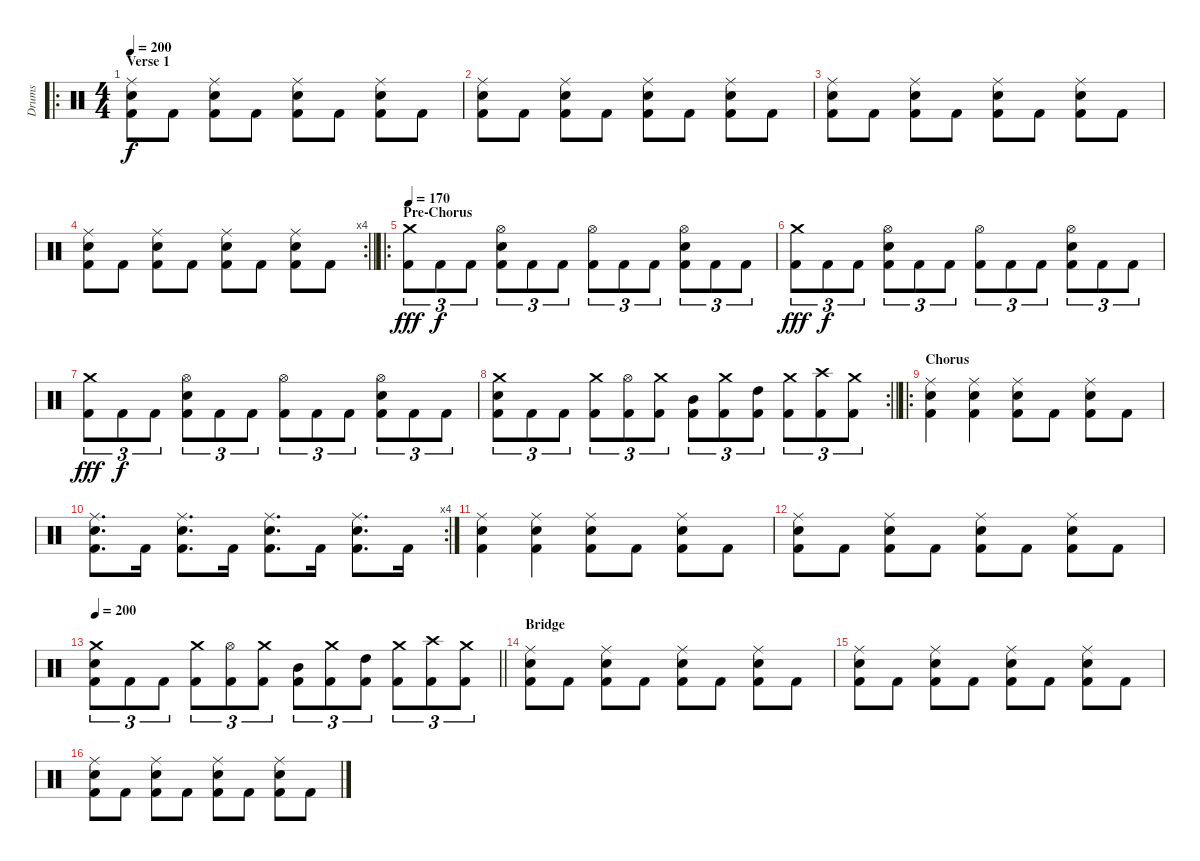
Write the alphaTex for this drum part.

\track ("Drums" "Drums") {instrument percussion}
\staff {score}
\articulation defaults
\ro
\ts (4 4)
\section ("" "Verse 1")
\tempo 200
\clef neutral
\ks c
("Ride (middle)" "Snare (hit) 2" "Kick (hit) 2").8{dy f} "Kick (hit) 2".8 ("Ride (middle)" "Snare (hit) 2" "Kick (hit) 2").8 "Kick (hit) 2".8 ("Ride (middle)" "Snare (hit) 2" "Kick (hit) 2").8 "Kick (hit) 2".8 ("Ride (middle)" "Snare (hit) 2" "Kick (hit) 2").8 "Kick (hit) 2".8 |
("Ride (middle)" "Snare (hit) 2" "Kick (hit) 2").8 "Kick (hit) 2".8 ("Ride (middle)" "Snare (hit) 2" "Kick (hit) 2").8 "Kick (hit) 2".8 ("Ride (middle)" "Snare (hit) 2" "Kick (hit) 2").8 "Kick (hit) 2".8 ("Ride (middle)" "Snare (hit) 2" "Kick (hit) 2").8 "Kick (hit) 2".8 |
("Ride (middle)" "Snare (hit) 2" "Kick (hit) 2").8 "Kick (hit) 2".8 ("Ride (middle)" "Snare (hit) 2" "Kick (hit) 2").8 "Kick (hit) 2".8 ("Ride (middle)" "Snare (hit) 2" "Kick (hit) 2").8 "Kick (hit) 2".8 ("Ride (middle)" "Snare (hit) 2" "Kick (hit) 2").8 "Kick (hit) 2".8 |
\rc 4
\barLineRight lightlight
("Ride (middle)" "Snare (hit) 2" "Kick (hit) 2").8 "Kick (hit) 2".8 ("Ride (middle)" "Snare (hit) 2" "Kick (hit) 2").8 "Kick (hit) 2".8 ("Ride (middle)" "Snare (hit) 2" "Kick (hit) 2").8 "Kick (hit) 2".8 ("Ride (middle)" "Snare (hit) 2" "Kick (hit) 2").8 "Kick (hit) 2".8 |
\ro
\section ("" "Pre-Chorus")
\tempo 170
("Crash medium (hit)" "Kick (hit) 2").8{tu (3 2) dy fff} "Kick (hit) 2".8{tu (3 2) dy f} "Kick (hit) 2".8{tu (3 2)} ("Hi-Hat (open)" "Snare (hit) 2" "Kick (hit) 2").8{tu (3 2)} "Kick (hit) 2".8{tu (3 2)} "Kick (hit) 2".8{tu (3 2)} ("Hi-Hat (open)" "Kick (hit) 2").8{tu (3 2)} "Kick (hit) 2".8{tu (3 2)} "Kick (hit) 2".8{tu (3 2)} ("Hi-Hat (open)" "Snare (hit) 2" "Kick (hit) 2").8{tu (3 2)} "Kick (hit) 2".8{tu (3 2)} "Kick (hit) 2".8{tu (3 2)} |
("Crash medium (hit)" "Kick (hit) 2").8{tu (3 2) dy fff} "Kick (hit) 2".8{tu (3 2) dy f} "Kick (hit) 2".8{tu (3 2)} ("Hi-Hat (open)" "Snare (hit) 2" "Kick (hit) 2").8{tu (3 2)} "Kick (hit) 2".8{tu (3 2)} "Kick (hit) 2".8{tu (3 2)} ("Hi-Hat (open)" "Kick (hit) 2").8{tu (3 2)} "Kick (hit) 2".8{tu (3 2)} "Kick (hit) 2".8{tu (3 2)} ("Hi-Hat (open)" "Snare (hit) 2" "Kick (hit) 2").8{tu (3 2)} "Kick (hit) 2".8{tu (3 2)} "Kick (hit) 2".8{tu (3 2)} |
("Crash medium (hit)" "Kick (hit) 2").8{tu (3 2) dy fff} "Kick (hit) 2".8{tu (3 2) dy f} "Kick (hit) 2".8{tu (3 2)} ("Hi-Hat (open)" "Snare (hit) 2" "Kick (hit) 2").8{tu (3 2)} "Kick (hit) 2".8{tu (3 2)} "Kick (hit) 2".8{tu (3 2)} ("Hi-Hat (open)" "Kick (hit) 2").8{tu (3 2)} "Kick (hit) 2".8{tu (3 2)} "Kick (hit) 2".8{tu (3 2)} ("Hi-Hat (open)" "Snare (hit) 2" "Kick (hit) 2").8{tu (3 2)} "Kick (hit) 2".8{tu (3 2)} "Kick (hit) 2".8{tu (3 2)} |
\rc 2
\barLineRight lightlight
("Crash medium (hit)" "Snare (hit) 2" "Kick (hit) 2").8{tu (3 2)} "Kick (hit) 2".8{tu (3 2)} "Kick (hit) 2".8{tu (3 2)} ("Crash medium (hit)" "Kick (hit) 2").8{tu (3 2)} ("Hi-Hat (open)" "Kick (hit) 2").8{tu (3 2)} ("Crash medium (hit)" "Kick (hit) 2").8{tu (3 2)} ("Mid Tom (hit)" "Kick (hit) 2").8{tu (3 2)} ("Crash medium (hit)" "Kick (hit) 2").8{tu (3 2)} ("High Tom (hit)" "Kick (hit) 2").8{tu (3 2)} ("Crash medium (hit)" "Kick (hit) 2").8{tu (3 2)} ("Crash high (hit)" "Kick (hit) 2").8{tu (3 2)} ("Crash medium (hit)" "Kick (hit) 2").8{tu (3 2)} |
\ro
\section ("" "Chorus")
("Ride (middle)" "Snare (hit) 2" "Kick (hit) 2").4 ("Ride (middle)" "Snare (hit) 2" "Kick (hit) 2").4 ("Ride (middle)" "Snare (hit) 2" "Kick (hit) 2").8 "Kick (hit) 2".8 ("Ride (middle)" "Snare (hit) 2" "Kick (hit) 2").8 "Kick (hit) 2".8 |
\rc 4
("Ride (middle)" "Snare (hit) 2" "Kick (hit) 2").8{d} "Kick (hit) 2".16 ("Ride (middle)" "Snare (hit) 2" "Kick (hit) 2").8{d} "Kick (hit) 2".16 ("Ride (middle)" "Snare (hit) 2" "Kick (hit) 2").8{d} "Kick (hit) 2".16 ("Ride (middle)" "Snare (hit) 2" "Kick (hit) 2").8{d} "Kick (hit) 2".16 |
("Ride (middle)" "Snare (hit) 2" "Kick (hit) 2").4 ("Ride (middle)" "Snare (hit) 2" "Kick (hit) 2").4 ("Ride (middle)" "Snare (hit) 2" "Kick (hit) 2").8 "Kick (hit) 2".8 ("Ride (middle)" "Snare (hit) 2" "Kick (hit) 2").8 "Kick (hit) 2".8 |
("Ride (middle)" "Snare (hit) 2" "Kick (hit) 2").8 "Kick (hit) 2".8 ("Ride (middle)" "Snare (hit) 2" "Kick (hit) 2").8 "Kick (hit) 2".8 ("Ride (middle)" "Snare (hit) 2" "Kick (hit) 2").8 "Kick (hit) 2".8 ("Ride (middle)" "Snare (hit) 2" "Kick (hit) 2").8 "Kick (hit) 2".8 |
\tempo 200
\barLineRight lightlight
("Crash medium (hit)" "Snare (hit) 2" "Kick (hit) 2").8{tu (3 2)} "Kick (hit) 2".8{tu (3 2)} "Kick (hit) 2".8{tu (3 2)} ("Crash medium (hit)" "Kick (hit) 2").8{tu (3 2)} ("Hi-Hat (open)" "Kick (hit) 2").8{tu (3 2)} ("Crash medium (hit)" "Kick (hit) 2").8{tu (3 2)} ("Mid Tom (hit)" "Kick (hit) 2").8{tu (3 2)} ("Crash medium (hit)" "Kick (hit) 2").8{tu (3 2)} ("High Tom (hit)" "Kick (hit) 2").8{tu (3 2)} ("Crash medium (hit)" "Kick (hit) 2").8{tu (3 2)} ("Crash high (hit)" "Kick (hit) 2").8{tu (3 2)} ("Crash medium (hit)" "Kick (hit) 2").8{tu (3 2)} |
\section ("" "Bridge")
("Ride (middle)" "Snare (hit) 2" "Kick (hit) 2").8 "Kick (hit) 2".8 ("Ride (middle)" "Snare (hit) 2" "Kick (hit) 2").8 "Kick (hit) 2".8 ("Ride (middle)" "Snare (hit) 2" "Kick (hit) 2").8 "Kick (hit) 2".8 ("Ride (middle)" "Snare (hit) 2" "Kick (hit) 2").8 "Kick (hit) 2".8 |
("Ride (middle)" "Snare (hit) 2" "Kick (hit) 2").8 "Kick (hit) 2".8 ("Ride (middle)" "Snare (hit) 2" "Kick (hit) 2").8 "Kick (hit) 2".8 ("Ride (middle)" "Snare (hit) 2" "Kick (hit) 2").8 "Kick (hit) 2".8 ("Ride (middle)" "Snare (hit) 2" "Kick (hit) 2").8 "Kick (hit) 2".8 |
("Ride (middle)" "Snare (hit) 2" "Kick (hit) 2").8 "Kick (hit) 2".8 ("Ride (middle)" "Snare (hit) 2" "Kick (hit) 2").8 "Kick (hit) 2".8 ("Ride (middle)" "Snare (hit) 2" "Kick (hit) 2").8 "Kick (hit) 2".8 ("Ride (middle)" "Snare (hit) 2" "Kick (hit) 2").8 "Kick (hit) 2".8
